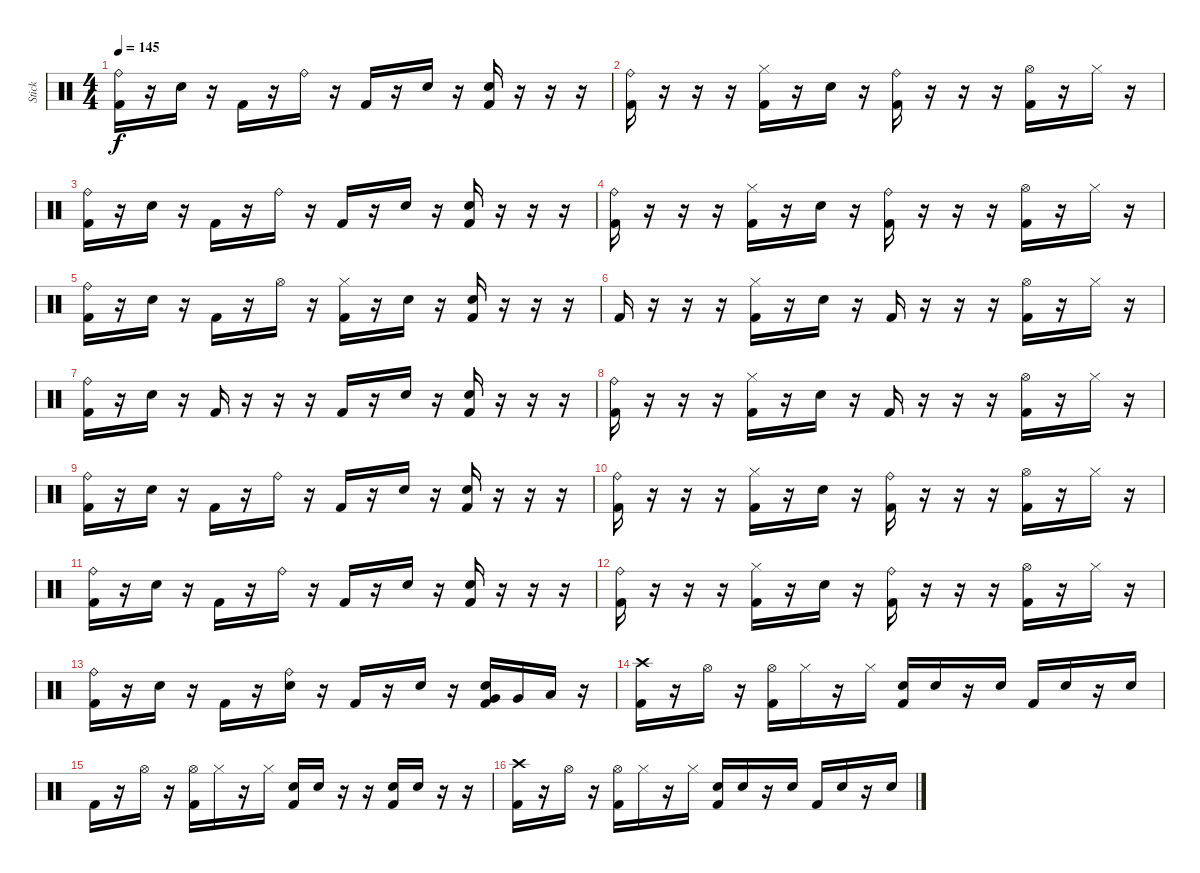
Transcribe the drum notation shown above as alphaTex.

\track ("Stick" "Stick") {instrument percussion}
\staff {score}
\articulation defaults
\ts (4 4)
\tempo 145
\clef neutral
\ks c
("Kick (hit) 2" "Ride (bell)").16{dy f} r.16 "Electric Snare (hit)".16 r.16 "Kick (hit) 2".16 r.16 "Ride (bell)".16 r.16 "Kick (hit) 2".16 r.16 "Electric Snare (hit)".16 r.16 ("Kick (hit) 2" "Electric Snare (hit)").16 r.16 r.16 r.16 |
("Kick (hit) 2" "Ride (bell)").16 r.16 r.16 r.16 ("Kick (hit) 2" "Hi-Hat (closed)").16 r.16 "Electric Snare (hit)".16 r.16 ("Kick (hit) 2" "Ride (bell)").16 r.16 r.16 r.16 ("Kick (hit) 2" "Hi-Hat (open)").16 r.16 "Hi-Hat (closed)".16 r.16 |
("Kick (hit) 2" "Ride (bell)").16 r.16 "Electric Snare (hit)".16 r.16 "Kick (hit) 2".16 r.16 "Ride (bell)".16 r.16 "Kick (hit) 2".16 r.16 "Electric Snare (hit)".16 r.16 ("Kick (hit) 2" "Electric Snare (hit)").16 r.16 r.16 r.16 |
("Kick (hit) 2" "Ride (bell)").16 r.16 r.16 r.16 ("Kick (hit) 2" "Hi-Hat (closed)").16 r.16 "Electric Snare (hit)".16 r.16 ("Kick (hit) 2" "Ride (bell)").16 r.16 r.16 r.16 ("Kick (hit) 2" "Hi-Hat (open)").16 r.16 "Hi-Hat (closed)".16 r.16 |
("Kick (hit) 2" "Ride (bell)").16 r.16 "Electric Snare (hit)".16 r.16 "Kick (hit) 2".16 r.16 "Hi-Hat (open)".16 r.16 ("Kick (hit) 2" "Hi-Hat (closed)").16 r.16 "Electric Snare (hit)".16 r.16 ("Kick (hit) 2" "Electric Snare (hit)").16 r.16 r.16 r.16 |
"Kick (hit) 2".16 r.16 r.16 r.16 ("Kick (hit) 2" "Hi-Hat (closed)").16 r.16 "Electric Snare (hit)".16 r.16 "Kick (hit) 2".16 r.16 r.16 r.16 ("Kick (hit) 2" "Hi-Hat (open)").16 r.16 "Hi-Hat (closed)".16 r.16 |
("Kick (hit) 2" "Ride (bell)").16 r.16 "Electric Snare (hit)".16 r.16 "Kick (hit) 2".16 r.16 r.16 r.16 "Kick (hit) 2".16 r.16 "Electric Snare (hit)".16 r.16 ("Kick (hit) 2" "Electric Snare (hit)").16 r.16 r.16 r.16 |
("Kick (hit) 2" "Ride (bell)").16 r.16 r.16 r.16 ("Kick (hit) 2" "Hi-Hat (closed)").16 r.16 "Electric Snare (hit)".16 r.16 "Kick (hit) 2".16 r.16 r.16 r.16 ("Kick (hit) 2" "Hi-Hat (open)").16 r.16 "Hi-Hat (closed)".16 r.16 |
("Kick (hit) 2" "Ride (bell)").16 r.16 "Electric Snare (hit)".16 r.16 "Kick (hit) 2".16 r.16 "Ride (bell)".16 r.16 "Kick (hit) 2".16 r.16 "Electric Snare (hit)".16 r.16 ("Kick (hit) 2" "Electric Snare (hit)").16 r.16 r.16 r.16 |
("Kick (hit) 2" "Ride (bell)").16 r.16 r.16 r.16 ("Kick (hit) 2" "Hi-Hat (closed)").16 r.16 "Electric Snare (hit)".16 r.16 ("Kick (hit) 2" "Ride (bell)").16 r.16 r.16 r.16 ("Kick (hit) 2" "Hi-Hat (open)").16 r.16 "Hi-Hat (closed)".16 r.16 |
("Kick (hit) 2" "Ride (bell)").16 r.16 "Electric Snare (hit)".16 r.16 "Kick (hit) 2".16 r.16 "Ride (bell)".16 r.16 "Kick (hit) 2".16 r.16 "Electric Snare (hit)".16 r.16 ("Kick (hit) 2" "Electric Snare (hit)").16 r.16 r.16 r.16 |
("Kick (hit) 2" "Ride (bell)").16 r.16 r.16 r.16 ("Kick (hit) 2" "Hi-Hat (closed)").16 r.16 "Electric Snare (hit)".16 r.16 ("Kick (hit) 2" "Ride (bell)").16 r.16 r.16 r.16 ("Kick (hit) 2" "Hi-Hat (open)").16 r.16 "Hi-Hat (closed)".16 r.16 |
("Kick (hit) 2" "Ride (bell)").16 r.16 "Electric Snare (hit)".16 r.16 "Kick (hit) 2".16 r.16 ("Ride (bell)" "Electric Snare (hit)").16 r.16 "Kick (hit) 2".16 r.16 "Electric Snare (hit)".16 r.16 ("Kick (hit) 2" "Electric Snare (hit)" "Very Low Tom (hit)").16 "Very Low Tom (hit)".16 "Low Tom (hit)".16 r.16 |
("Kick (hit) 2" "Crash high (hit)").16 r.16 "Hi-Hat (open)".16 r.16 ("Kick (hit) 2" "Hi-Hat (open)").16 "Hi-Hat (closed)".16 r.16 "Hi-Hat (closed)".16 ("Kick (hit) 2" "Electric Snare (hit)").16 "Electric Snare (hit)".16 r.16 "Electric Snare (hit)".16 "Kick (hit) 2".16 "Electric Snare (hit)".16 r.16 "Electric Snare (hit)".16 |
"Kick (hit) 2".16 r.16 "Hi-Hat (open)".16 r.16 ("Kick (hit) 2" "Hi-Hat (open)").16 "Hi-Hat (closed)".16 r.16 "Hi-Hat (closed)".16 ("Kick (hit) 2" "Electric Snare (hit)").16 "Electric Snare (hit)".16 r.16 r.16 ("Kick (hit) 2" "Electric Snare (hit)").16 "Electric Snare (hit)".16 r.16 r.16 |
("Kick (hit) 2" "Crash high (hit)").16 r.16 "Hi-Hat (open)".16 r.16 ("Kick (hit) 2" "Hi-Hat (open)").16 "Hi-Hat (closed)".16 r.16 "Hi-Hat (closed)".16 ("Kick (hit) 2" "Electric Snare (hit)").16 "Electric Snare (hit)".16 r.16 "Electric Snare (hit)".16 "Kick (hit) 2".16 "Electric Snare (hit)".16 r.16 "Electric Snare (hit)".16
